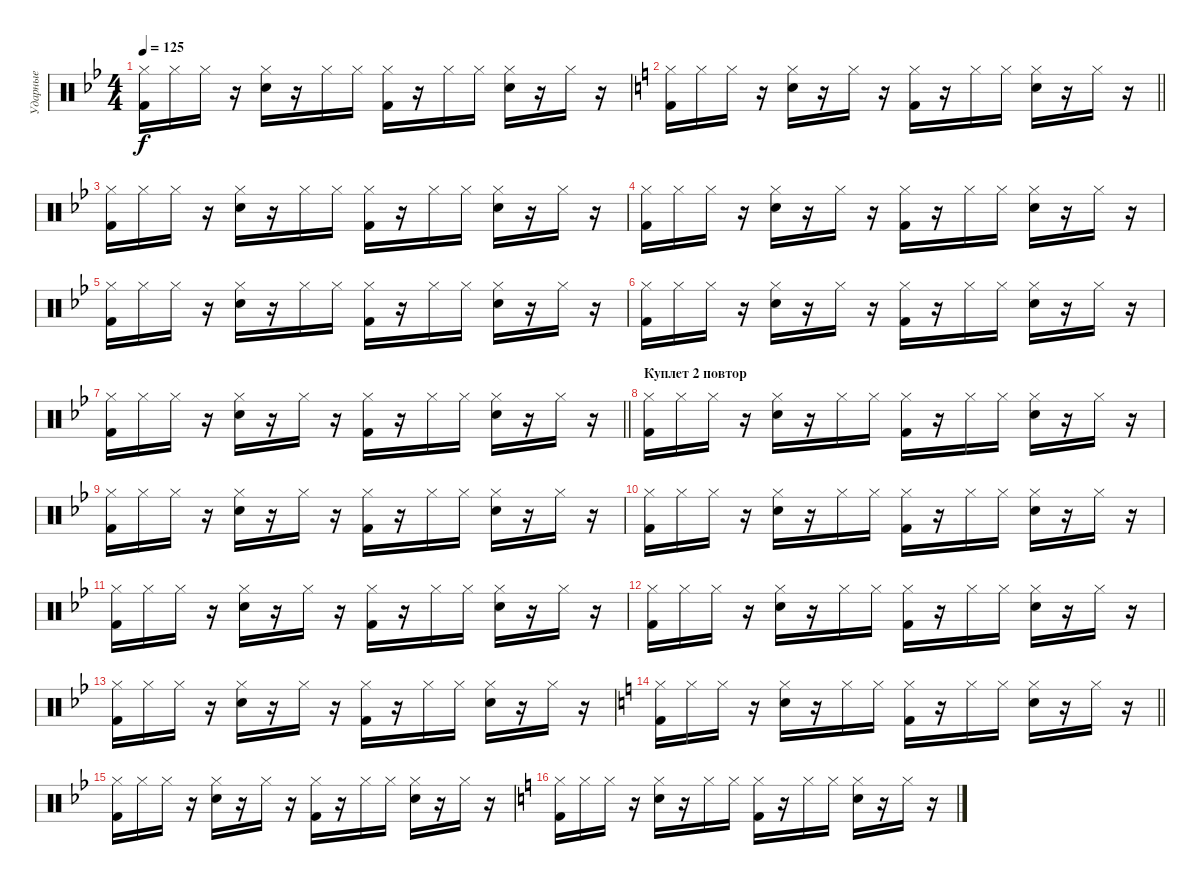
\track ("Ударные" "Ударные") {instrument percussion}
\staff {score}
\articulation defaults
\ts (4 4)
\tempo 125
\clef neutral
\ks bb
("Kick (hit) 2" "Hi-Hat (closed)").16{dy f} "Hi-Hat (closed)".16 "Hi-Hat (closed)".16 r.16 ("Snare (hit) 2" "Hi-Hat (closed)").16 r.16 "Hi-Hat (closed)".16 "Hi-Hat (closed)".16 ("Kick (hit) 2" "Hi-Hat (closed)").16 r.16 "Hi-Hat (closed)".16 "Hi-Hat (closed)".16 ("Snare (hit) 2" "Hi-Hat (closed)").16 r.16 "Hi-Hat (closed)".16 r.16 |
\barLineRight lightlight
\ks c
("Kick (hit) 2" "Hi-Hat (closed)").16 "Hi-Hat (closed)".16 "Hi-Hat (closed)".16 r.16 ("Snare (hit) 2" "Hi-Hat (closed)").16 r.16 "Hi-Hat (closed)".16 r.16 ("Kick (hit) 2" "Hi-Hat (closed)").16 r.16 "Hi-Hat (closed)".16 "Hi-Hat (closed)".16 ("Snare (hit) 2" "Hi-Hat (closed)").16 r.16 "Hi-Hat (closed)".16 r.16 |
\ks bb
("Kick (hit) 2" "Hi-Hat (closed)").16 "Hi-Hat (closed)".16 "Hi-Hat (closed)".16 r.16 ("Snare (hit) 2" "Hi-Hat (closed)").16 r.16 "Hi-Hat (closed)".16 "Hi-Hat (closed)".16 ("Kick (hit) 2" "Hi-Hat (closed)").16 r.16 "Hi-Hat (closed)".16 "Hi-Hat (closed)".16 ("Snare (hit) 2" "Hi-Hat (closed)").16 r.16 "Hi-Hat (closed)".16 r.16 |
("Kick (hit) 2" "Hi-Hat (closed)").16 "Hi-Hat (closed)".16 "Hi-Hat (closed)".16 r.16 ("Snare (hit) 2" "Hi-Hat (closed)").16 r.16 "Hi-Hat (closed)".16 r.16 ("Kick (hit) 2" "Hi-Hat (closed)").16 r.16 "Hi-Hat (closed)".16 "Hi-Hat (closed)".16 ("Snare (hit) 2" "Hi-Hat (closed)").16 r.16 "Hi-Hat (closed)".16 r.16 |
("Kick (hit) 2" "Hi-Hat (closed)").16 "Hi-Hat (closed)".16 "Hi-Hat (closed)".16 r.16 ("Snare (hit) 2" "Hi-Hat (closed)").16 r.16 "Hi-Hat (closed)".16 "Hi-Hat (closed)".16 ("Kick (hit) 2" "Hi-Hat (closed)").16 r.16 "Hi-Hat (closed)".16 "Hi-Hat (closed)".16 ("Snare (hit) 2" "Hi-Hat (closed)").16 r.16 "Hi-Hat (closed)".16 r.16 |
("Kick (hit) 2" "Hi-Hat (closed)").16 "Hi-Hat (closed)".16 "Hi-Hat (closed)".16 r.16 ("Snare (hit) 2" "Hi-Hat (closed)").16 r.16 "Hi-Hat (closed)".16 r.16 ("Kick (hit) 2" "Hi-Hat (closed)").16 r.16 "Hi-Hat (closed)".16 "Hi-Hat (closed)".16 ("Snare (hit) 2" "Hi-Hat (closed)").16 r.16 "Hi-Hat (closed)".16 r.16 |
\barLineRight lightlight
("Kick (hit) 2" "Hi-Hat (closed)").16 "Hi-Hat (closed)".16 "Hi-Hat (closed)".16 r.16 ("Snare (hit) 2" "Hi-Hat (closed)").16 r.16 "Hi-Hat (closed)".16 r.16 ("Kick (hit) 2" "Hi-Hat (closed)").16 r.16 "Hi-Hat (closed)".16 "Hi-Hat (closed)".16 ("Snare (hit) 2" "Hi-Hat (closed)").16 r.16 "Hi-Hat (closed)".16 r.16 |
\section ("" "Куплет 2 повтор")
("Kick (hit) 2" "Hi-Hat (closed)").16 "Hi-Hat (closed)".16 "Hi-Hat (closed)".16 r.16 ("Snare (hit) 2" "Hi-Hat (closed)").16 r.16 "Hi-Hat (closed)".16 "Hi-Hat (closed)".16 ("Kick (hit) 2" "Hi-Hat (closed)").16 r.16 "Hi-Hat (closed)".16 "Hi-Hat (closed)".16 ("Snare (hit) 2" "Hi-Hat (closed)").16 r.16 "Hi-Hat (closed)".16 r.16 |
("Kick (hit) 2" "Hi-Hat (closed)").16 "Hi-Hat (closed)".16 "Hi-Hat (closed)".16 r.16 ("Snare (hit) 2" "Hi-Hat (closed)").16 r.16 "Hi-Hat (closed)".16 r.16 ("Kick (hit) 2" "Hi-Hat (closed)").16 r.16 "Hi-Hat (closed)".16 "Hi-Hat (closed)".16 ("Snare (hit) 2" "Hi-Hat (closed)").16 r.16 "Hi-Hat (closed)".16 r.16 |
("Kick (hit) 2" "Hi-Hat (closed)").16 "Hi-Hat (closed)".16 "Hi-Hat (closed)".16 r.16 ("Snare (hit) 2" "Hi-Hat (closed)").16 r.16 "Hi-Hat (closed)".16 "Hi-Hat (closed)".16 ("Kick (hit) 2" "Hi-Hat (closed)").16 r.16 "Hi-Hat (closed)".16 "Hi-Hat (closed)".16 ("Snare (hit) 2" "Hi-Hat (closed)").16 r.16 "Hi-Hat (closed)".16 r.16 |
("Kick (hit) 2" "Hi-Hat (closed)").16 "Hi-Hat (closed)".16 "Hi-Hat (closed)".16 r.16 ("Snare (hit) 2" "Hi-Hat (closed)").16 r.16 "Hi-Hat (closed)".16 r.16 ("Kick (hit) 2" "Hi-Hat (closed)").16 r.16 "Hi-Hat (closed)".16 "Hi-Hat (closed)".16 ("Snare (hit) 2" "Hi-Hat (closed)").16 r.16 "Hi-Hat (closed)".16 r.16 |
("Kick (hit) 2" "Hi-Hat (closed)").16 "Hi-Hat (closed)".16 "Hi-Hat (closed)".16 r.16 ("Snare (hit) 2" "Hi-Hat (closed)").16 r.16 "Hi-Hat (closed)".16 "Hi-Hat (closed)".16 ("Kick (hit) 2" "Hi-Hat (closed)").16 r.16 "Hi-Hat (closed)".16 "Hi-Hat (closed)".16 ("Snare (hit) 2" "Hi-Hat (closed)").16 r.16 "Hi-Hat (closed)".16 r.16 |
("Kick (hit) 2" "Hi-Hat (closed)").16 "Hi-Hat (closed)".16 "Hi-Hat (closed)".16 r.16 ("Snare (hit) 2" "Hi-Hat (closed)").16 r.16 "Hi-Hat (closed)".16 r.16 ("Kick (hit) 2" "Hi-Hat (closed)").16 r.16 "Hi-Hat (closed)".16 "Hi-Hat (closed)".16 ("Snare (hit) 2" "Hi-Hat (closed)").16 r.16 "Hi-Hat (closed)".16 r.16 |
\barLineRight lightlight
\ks c
("Kick (hit) 2" "Hi-Hat (closed)").16 "Hi-Hat (closed)".16 "Hi-Hat (closed)".16 r.16 ("Snare (hit) 2" "Hi-Hat (closed)").16 r.16 "Hi-Hat (closed)".16 "Hi-Hat (closed)".16 ("Kick (hit) 2" "Hi-Hat (closed)").16 r.16 "Hi-Hat (closed)".16 "Hi-Hat (closed)".16 ("Snare (hit) 2" "Hi-Hat (closed)").16 r.16 "Hi-Hat (closed)".16 r.16 |
\ks bb
("Kick (hit) 2" "Hi-Hat (closed)").16 "Hi-Hat (closed)".16 "Hi-Hat (closed)".16 r.16 ("Snare (hit) 2" "Hi-Hat (closed)").16 r.16 "Hi-Hat (closed)".16 r.16 ("Kick (hit) 2" "Hi-Hat (closed)").16 r.16 "Hi-Hat (closed)".16 "Hi-Hat (closed)".16 ("Snare (hit) 2" "Hi-Hat (closed)").16 r.16 "Hi-Hat (closed)".16 r.16 |
\ks c
("Kick (hit) 2" "Hi-Hat (closed)").16 "Hi-Hat (closed)".16 "Hi-Hat (closed)".16 r.16 ("Snare (hit) 2" "Hi-Hat (closed)").16 r.16 "Hi-Hat (closed)".16 "Hi-Hat (closed)".16 ("Kick (hit) 2" "Hi-Hat (closed)").16 r.16 "Hi-Hat (closed)".16 "Hi-Hat (closed)".16 ("Snare (hit) 2" "Hi-Hat (closed)").16 r.16 "Hi-Hat (closed)".16 r.16
